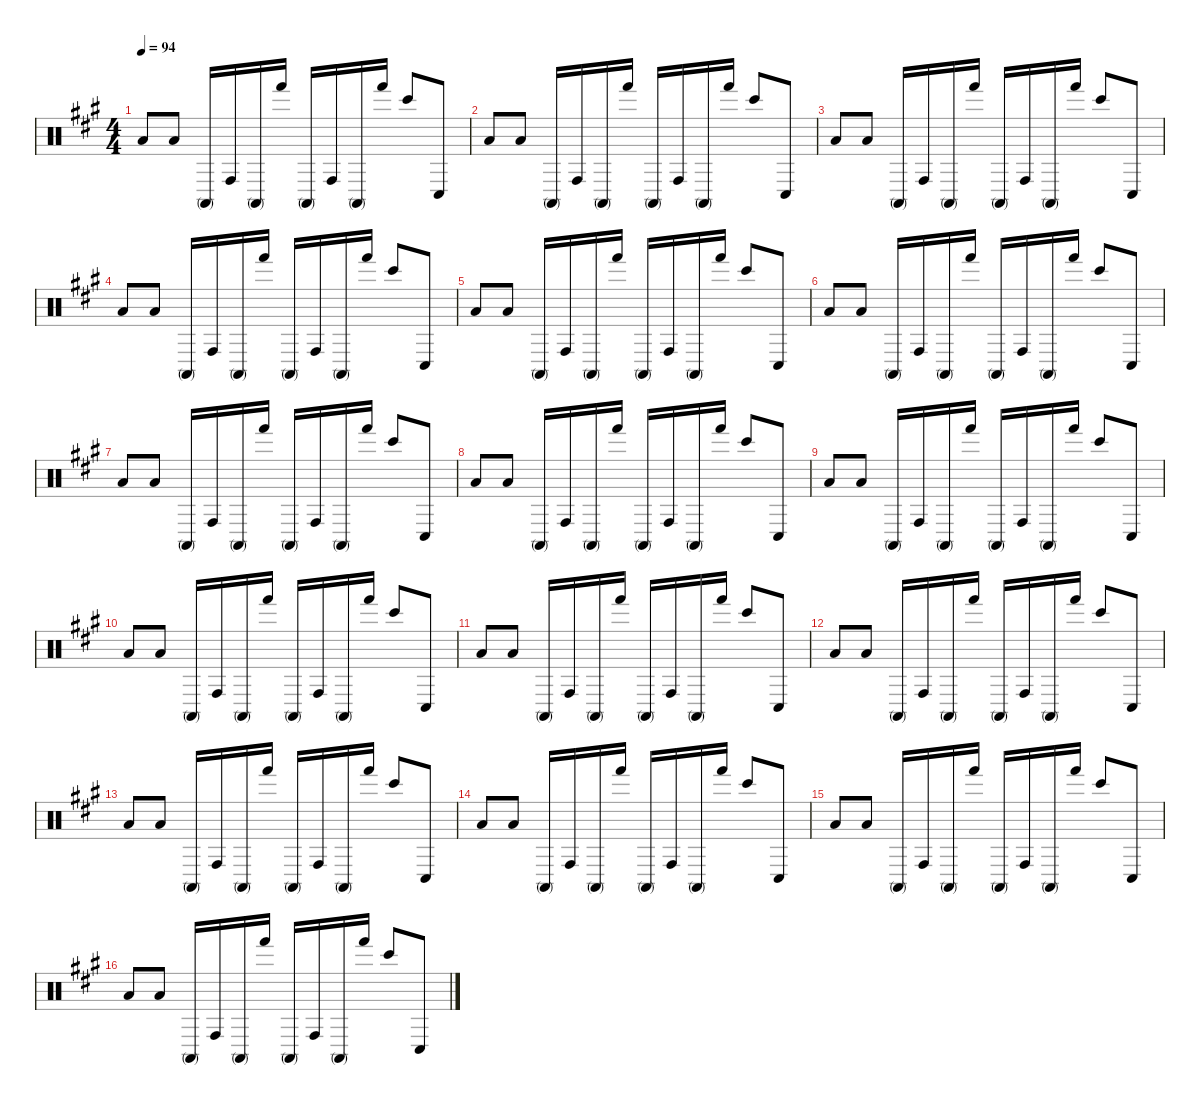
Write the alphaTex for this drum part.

\defaultSystemsLayout 4
\hideDynamics
\bracketExtendMode nobrackets
\singleTrackTrackNamePolicy hidden
\multiTrackTrackNamePolicy hidden
\firstSystemTrackNameMode fullname
\firstSystemTrackNameOrientation horizontal
\otherSystemsTrackNameOrientation horizontal
\track ("Bongos" "drm.") {defaultSystemsLayout 4 instrument percussion}
\staff {score}
\articulation defaults
\ts (4 4)
\tempo 94
\clef neutral
\ks a "Low Floor Tom (hit)"{acc forcenatural}.8{dy f beam Up} "Low Floor Tom (hit)"{acc forcenatural}.8{beam Up} "Conga high (mute)"{acc forcenatural}.16{beam Up} "Conga high (hit)"{acc forcenatural}.16{beam Up} "Conga high (mute)"{acc forcenatural}.16{beam Up} "Hand (hit)"{acc forcenatural}.16{beam Up} "Conga high (mute)"{acc forcenatural}.16{beam Up} "Conga high (hit)"{acc forcenatural}.16{beam Up} "Conga high (mute)"{acc forcenatural}.16{beam Up} "Hand (hit)"{acc forcenatural}.16{beam Up} "Bongo High (hit)"{acc forcenatural}.8{beam Up} "Conga low (hit)"{acc forcenatural}.8{beam Up}
|
"Low Floor Tom (hit)"{acc forcenatural}.8{beam Up} "Low Floor Tom (hit)"{acc forcenatural}.8{beam Up} "Conga high (mute)"{acc forcenatural}.16{beam Up} "Conga high (hit)"{acc forcenatural}.16{beam Up} "Conga high (mute)"{acc forcenatural}.16{beam Up} "Hand (hit)"{acc forcenatural}.16{beam Up} "Conga high (mute)"{acc forcenatural}.16{beam Up} "Conga high (hit)"{acc forcenatural}.16{beam Up} "Conga high (mute)"{acc forcenatural}.16{beam Up} "Hand (hit)"{acc forcenatural}.16{beam Up} "Bongo High (hit)"{acc forcenatural}.8{beam Up} "Conga low (hit)"{acc forcenatural}.8{beam Up} |
"Low Floor Tom (hit)"{acc forcenatural}.8{beam Up} "Low Floor Tom (hit)"{acc forcenatural}.8{beam Up} "Conga high (mute)"{acc forcenatural}.16{beam Up} "Conga high (hit)"{acc forcenatural}.16{beam Up} "Conga high (mute)"{acc forcenatural}.16{beam Up} "Hand (hit)"{acc forcenatural}.16{beam Up} "Conga high (mute)"{acc forcenatural}.16{beam Up} "Conga high (hit)"{acc forcenatural}.16{beam Up} "Conga high (mute)"{acc forcenatural}.16{beam Up} "Hand (hit)"{acc forcenatural}.16{beam Up} "Bongo High (hit)"{acc forcenatural}.8{beam Up} "Conga low (hit)"{acc forcenatural}.8{beam Up} |
"Low Floor Tom (hit)"{acc forcenatural}.8{beam Up} "Low Floor Tom (hit)"{acc forcenatural}.8{beam Up} "Conga high (mute)"{acc forcenatural}.16{beam Up} "Conga high (hit)"{acc forcenatural}.16{beam Up} "Conga high (mute)"{acc forcenatural}.16{beam Up} "Hand (hit)"{acc forcenatural}.16{beam Up} "Conga high (mute)"{acc forcenatural}.16{beam Up} "Conga high (hit)"{acc forcenatural}.16{beam Up} "Conga high (mute)"{acc forcenatural}.16{beam Up} "Hand (hit)"{acc forcenatural}.16{beam Up} "Bongo High (hit)"{acc forcenatural}.8{beam Up} "Conga low (hit)"{acc forcenatural}.8{beam Up} |
"Low Floor Tom (hit)"{acc forcenatural}.8{beam Up} "Low Floor Tom (hit)"{acc forcenatural}.8{beam Up} "Conga high (mute)"{acc forcenatural}.16{beam Up} "Conga high (hit)"{acc forcenatural}.16{beam Up} "Conga high (mute)"{acc forcenatural}.16{beam Up} "Hand (hit)"{acc forcenatural}.16{beam Up} "Conga high (mute)"{acc forcenatural}.16{beam Up} "Conga high (hit)"{acc forcenatural}.16{beam Up} "Conga high (mute)"{acc forcenatural}.16{beam Up} "Hand (hit)"{acc forcenatural}.16{beam Up} "Bongo High (hit)"{acc forcenatural}.8{beam Up} "Conga low (hit)"{acc forcenatural}.8{beam Up} |
"Low Floor Tom (hit)"{acc forcenatural}.8{beam Up} "Low Floor Tom (hit)"{acc forcenatural}.8{beam Up} "Conga high (mute)"{acc forcenatural}.16{beam Up} "Conga high (hit)"{acc forcenatural}.16{beam Up} "Conga high (mute)"{acc forcenatural}.16{beam Up} "Hand (hit)"{acc forcenatural}.16{beam Up} "Conga high (mute)"{acc forcenatural}.16{beam Up} "Conga high (hit)"{acc forcenatural}.16{beam Up} "Conga high (mute)"{acc forcenatural}.16{beam Up} "Hand (hit)"{acc forcenatural}.16{beam Up} "Bongo High (hit)"{acc forcenatural}.8{beam Up} "Conga low (hit)"{acc forcenatural}.8{beam Up} |
"Low Floor Tom (hit)"{acc forcenatural}.8{beam Up} "Low Floor Tom (hit)"{acc forcenatural}.8{beam Up} "Conga high (mute)"{acc forcenatural}.16{beam Up} "Conga high (hit)"{acc forcenatural}.16{beam Up} "Conga high (mute)"{acc forcenatural}.16{beam Up} "Hand (hit)"{acc forcenatural}.16{beam Up} "Conga high (mute)"{acc forcenatural}.16{beam Up} "Conga high (hit)"{acc forcenatural}.16{beam Up} "Conga high (mute)"{acc forcenatural}.16{beam Up} "Hand (hit)"{acc forcenatural}.16{beam Up} "Bongo High (hit)"{acc forcenatural}.8{beam Up} "Conga low (hit)"{acc forcenatural}.8{beam Up} |
"Low Floor Tom (hit)"{acc forcenatural}.8{beam Up} "Low Floor Tom (hit)"{acc forcenatural}.8{beam Up} "Conga high (mute)"{acc forcenatural}.16{beam Up} "Conga high (hit)"{acc forcenatural}.16{beam Up} "Conga high (mute)"{acc forcenatural}.16{beam Up} "Hand (hit)"{acc forcenatural}.16{beam Up} "Conga high (mute)"{acc forcenatural}.16{beam Up} "Conga high (hit)"{acc forcenatural}.16{beam Up} "Conga high (mute)"{acc forcenatural}.16{beam Up} "Hand (hit)"{acc forcenatural}.16{beam Up} "Bongo High (hit)"{acc forcenatural}.8{beam Up} "Conga low (hit)"{acc forcenatural}.8{beam Up} |
"Low Floor Tom (hit)"{acc forcenatural}.8{beam Up} "Low Floor Tom (hit)"{acc forcenatural}.8{beam Up} "Conga high (mute)"{acc forcenatural}.16{beam Up} "Conga high (hit)"{acc forcenatural}.16{beam Up} "Conga high (mute)"{acc forcenatural}.16{beam Up} "Hand (hit)"{acc forcenatural}.16{beam Up} "Conga high (mute)"{acc forcenatural}.16{beam Up} "Conga high (hit)"{acc forcenatural}.16{beam Up} "Conga high (mute)"{acc forcenatural}.16{beam Up} "Hand (hit)"{acc forcenatural}.16{beam Up} "Bongo High (hit)"{acc forcenatural}.8{beam Up} "Conga low (hit)"{acc forcenatural}.8{beam Up} |
"Low Floor Tom (hit)"{acc forcenatural}.8{beam Up} "Low Floor Tom (hit)"{acc forcenatural}.8{beam Up} "Conga high (mute)"{acc forcenatural}.16{beam Up} "Conga high (hit)"{acc forcenatural}.16{beam Up} "Conga high (mute)"{acc forcenatural}.16{beam Up} "Hand (hit)"{acc forcenatural}.16{beam Up} "Conga high (mute)"{acc forcenatural}.16{beam Up} "Conga high (hit)"{acc forcenatural}.16{beam Up} "Conga high (mute)"{acc forcenatural}.16{beam Up} "Hand (hit)"{acc forcenatural}.16{beam Up} "Bongo High (hit)"{acc forcenatural}.8{beam Up} "Conga low (hit)"{acc forcenatural}.8{beam Up} |
"Low Floor Tom (hit)"{acc forcenatural}.8{beam Up} "Low Floor Tom (hit)"{acc forcenatural}.8{beam Up} "Conga high (mute)"{acc forcenatural}.16{beam Up} "Conga high (hit)"{acc forcenatural}.16{beam Up} "Conga high (mute)"{acc forcenatural}.16{beam Up} "Hand (hit)"{acc forcenatural}.16{beam Up} "Conga high (mute)"{acc forcenatural}.16{beam Up} "Conga high (hit)"{acc forcenatural}.16{beam Up} "Conga high (mute)"{acc forcenatural}.16{beam Up} "Hand (hit)"{acc forcenatural}.16{beam Up} "Bongo High (hit)"{acc forcenatural}.8{beam Up} "Conga low (hit)"{acc forcenatural}.8{beam Up} |
"Low Floor Tom (hit)"{acc forcenatural}.8{beam Up} "Low Floor Tom (hit)"{acc forcenatural}.8{beam Up} "Conga high (mute)"{acc forcenatural}.16{beam Up} "Conga high (hit)"{acc forcenatural}.16{beam Up} "Conga high (mute)"{acc forcenatural}.16{beam Up} "Hand (hit)"{acc forcenatural}.16{beam Up} "Conga high (mute)"{acc forcenatural}.16{beam Up} "Conga high (hit)"{acc forcenatural}.16{beam Up} "Conga high (mute)"{acc forcenatural}.16{beam Up} "Hand (hit)"{acc forcenatural}.16{beam Up} "Bongo High (hit)"{acc forcenatural}.8{beam Up} "Conga low (hit)"{acc forcenatural}.8{beam Up} |
"Low Floor Tom (hit)"{acc forcenatural}.8{beam Up} "Low Floor Tom (hit)"{acc forcenatural}.8{beam Up} "Conga high (mute)"{acc forcenatural}.16{beam Up} "Conga high (hit)"{acc forcenatural}.16{beam Up} "Conga high (mute)"{acc forcenatural}.16{beam Up} "Hand (hit)"{acc forcenatural}.16{beam Up} "Conga high (mute)"{acc forcenatural}.16{beam Up} "Conga high (hit)"{acc forcenatural}.16{beam Up} "Conga high (mute)"{acc forcenatural}.16{beam Up} "Hand (hit)"{acc forcenatural}.16{beam Up} "Bongo High (hit)"{acc forcenatural}.8{beam Up} "Conga low (hit)"{acc forcenatural}.8{beam Up} |
"Low Floor Tom (hit)"{acc forcenatural}.8{beam Up} "Low Floor Tom (hit)"{acc forcenatural}.8{beam Up} "Conga high (mute)"{acc forcenatural}.16{beam Up} "Conga high (hit)"{acc forcenatural}.16{beam Up} "Conga high (mute)"{acc forcenatural}.16{beam Up} "Hand (hit)"{acc forcenatural}.16{beam Up} "Conga high (mute)"{acc forcenatural}.16{beam Up} "Conga high (hit)"{acc forcenatural}.16{beam Up} "Conga high (mute)"{acc forcenatural}.16{beam Up} "Hand (hit)"{acc forcenatural}.16{beam Up} "Bongo High (hit)"{acc forcenatural}.8{beam Up} "Conga low (hit)"{acc forcenatural}.8{beam Up} |
"Low Floor Tom (hit)"{acc forcenatural}.8{beam Up} "Low Floor Tom (hit)"{acc forcenatural}.8{beam Up} "Conga high (mute)"{acc forcenatural}.16{beam Up} "Conga high (hit)"{acc forcenatural}.16{beam Up} "Conga high (mute)"{acc forcenatural}.16{beam Up} "Hand (hit)"{acc forcenatural}.16{beam Up} "Conga high (mute)"{acc forcenatural}.16{beam Up} "Conga high (hit)"{acc forcenatural}.16{beam Up} "Conga high (mute)"{acc forcenatural}.16{beam Up} "Hand (hit)"{acc forcenatural}.16{beam Up} "Bongo High (hit)"{acc forcenatural}.8{beam Up} "Conga low (hit)"{acc forcenatural}.8{beam Up} |
"Low Floor Tom (hit)"{acc forcenatural}.8{beam Up} "Low Floor Tom (hit)"{acc forcenatural}.8{beam Up} "Conga high (mute)"{acc forcenatural}.16{beam Up} "Conga high (hit)"{acc forcenatural}.16{beam Up} "Conga high (mute)"{acc forcenatural}.16{beam Up} "Hand (hit)"{acc forcenatural}.16{beam Up} "Conga high (mute)"{acc forcenatural}.16{beam Up} "Conga high (hit)"{acc forcenatural}.16{beam Up} "Conga high (mute)"{acc forcenatural}.16{beam Up} "Hand (hit)"{acc forcenatural}.16{beam Up} "Bongo High (hit)"{acc forcenatural}.8{beam Up} "Conga low (hit)"{acc forcenatural}.8{beam Up}
